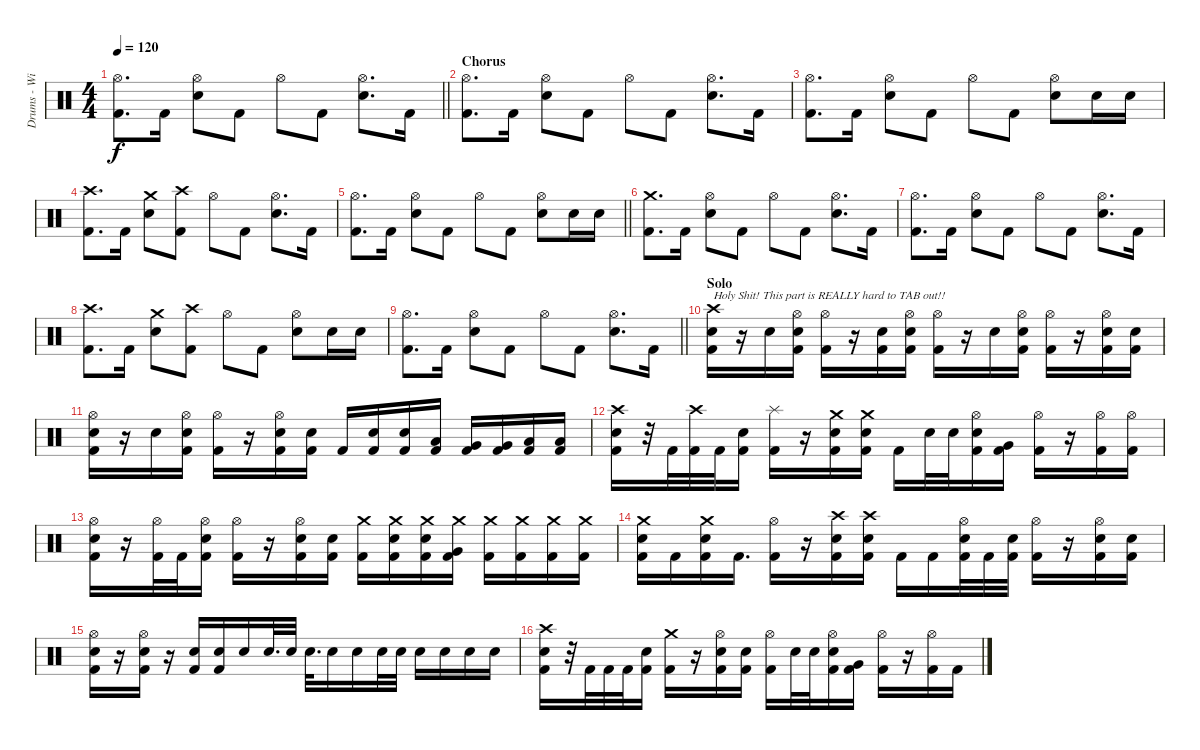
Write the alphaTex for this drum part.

\track ("Drums - Willi Wurm" "Drums - Wi") {instrument percussion}
\staff {score}
\articulation defaults
\ts (4 4)
\tempo 120
\clef neutral
\barLineRight lightlight
\ks c
("Hi-Hat (open)" "Kick (hit) 2").8{d dy f} "Kick (hit) 2".16 ("Hi-Hat (open)" "Snare (hit) 2").8 "Kick (hit) 2".8 "Hi-Hat (open)".8 "Kick (hit) 2".8 ("Hi-Hat (open)" "Snare (hit) 2").8{d} "Kick (hit) 2".16 |
\section ("" "Chorus")
("Hi-Hat (open)" "Kick (hit) 2").8{d} "Kick (hit) 2".16 ("Hi-Hat (open)" "Snare (hit) 2").8 "Kick (hit) 2".8 "Hi-Hat (open)".8 "Kick (hit) 2".8 ("Hi-Hat (open)" "Snare (hit) 2").8{d} "Kick (hit) 2".16 |
("Hi-Hat (open)" "Kick (hit) 2").8{d} "Kick (hit) 2".16 ("Hi-Hat (open)" "Snare (hit) 2").8 "Kick (hit) 2".8 "Hi-Hat (open)".8 "Kick (hit) 2".8 ("Hi-Hat (open)" "Snare (hit) 2").8 "Snare (hit) 2".16 "Snare (hit) 2".16 |
("Crash high (hit)" "Kick (hit) 2").8{d} "Kick (hit) 2".16 ("Crash medium (hit)" "Snare (hit) 2").8 ("Crash high (hit)" "Kick (hit) 2").8 "Hi-Hat (open)".8 "Kick (hit) 2".8 ("Hi-Hat (open)" "Snare (hit) 2").8{d} "Kick (hit) 2".16 |
\barLineRight lightlight
("Hi-Hat (open)" "Kick (hit) 2").8{d} "Kick (hit) 2".16 ("Hi-Hat (open)" "Snare (hit) 2").8 "Kick (hit) 2".8 "Hi-Hat (open)".8 "Kick (hit) 2".8 ("Hi-Hat (open)" "Snare (hit) 2").8 "Snare (hit) 2".16 "Snare (hit) 2".16 |
("Crash medium (hit)" "Kick (hit) 2").8{d} "Kick (hit) 2".16 ("Hi-Hat (open)" "Snare (hit) 2").8 "Kick (hit) 2".8 "Hi-Hat (open)".8 "Kick (hit) 2".8 ("Hi-Hat (open)" "Snare (hit) 2").8{d} "Kick (hit) 2".16 |
("Hi-Hat (open)" "Kick (hit) 2").8{d} "Kick (hit) 2".16 ("Hi-Hat (open)" "Snare (hit) 2").8 "Kick (hit) 2".8 "Hi-Hat (open)".8 "Kick (hit) 2".8 ("Hi-Hat (open)" "Snare (hit) 2").8{d} "Kick (hit) 2".16 |
("Crash high (hit)" "Kick (hit) 2").8{d} "Kick (hit) 2".16 ("Crash medium (hit)" "Snare (hit) 2").8 ("Crash high (hit)" "Kick (hit) 2").8 "Hi-Hat (open)".8 "Kick (hit) 2".8 ("Hi-Hat (open)" "Snare (hit) 2").8 "Snare (hit) 2".16 "Snare (hit) 2".16 |
\barLineRight lightlight
("Hi-Hat (open)" "Kick (hit) 2").8{d} "Kick (hit) 2".16 ("Hi-Hat (open)" "Snare (hit) 2").8 "Kick (hit) 2".8 "Hi-Hat (open)".8 "Kick (hit) 2".8 ("Hi-Hat (open)" "Snare (hit) 2").8{d} "Kick (hit) 2".16 |
\section ("" "Solo")
("Crash high (hit)" "Snare (hit) 2" "Kick (hit) 2").16{txt "Holy Shit! This part is REALLY hard to TAB out!!"} r.16 "Snare (hit) 2".16 ("Hi-Hat (open)" "Snare (hit) 2" "Kick (hit) 2").16 ("Hi-Hat (open)" "Kick (hit) 2").16 r.16 ("Snare (hit) 2" "Kick (hit) 2").16 ("Hi-Hat (open)" "Snare (hit) 2" "Kick (hit) 2").16 ("Hi-Hat (open)" "Kick (hit) 2").16 r.16 "Snare (hit) 2".16 ("Hi-Hat (open)" "Snare (hit) 2" "Kick (hit) 2").16 ("Hi-Hat (open)" "Kick (hit) 2").16 r.16 ("Hi-Hat (open)" "Snare (hit) 2" "Kick (hit) 2").16 ("Snare (hit) 2" "Kick (hit) 2").16 |
("Hi-Hat (open)" "Snare (hit) 2" "Kick (hit) 2").16 r.16 "Snare (hit) 2".16 ("Hi-Hat (open)" "Snare (hit) 2" "Kick (hit) 2").16 ("Hi-Hat (open)" "Kick (hit) 2").16 r.16 ("Hi-Hat (open)" "Snare (hit) 2" "Kick (hit) 2").16 ("Snare (hit) 2" "Kick (hit) 2").16 "Kick (hit) 2".16 ("Snare (hit) 2" "Kick (hit) 2").16 ("Snare (hit) 2" "Kick (hit) 2").16 ("Low Tom (hit)" "Kick (hit) 2").16 ("Very Low Tom (hit)" "Kick (hit) 2").16 ("Very Low Tom (hit)" "Kick (hit) 2").16 ("Low Floor Tom (hit)" "Kick (hit) 2").16 ("Low Floor Tom (hit)" "Kick (hit) 2").16 |
("Crash high (hit)" "Snare (hit) 2" "Kick (hit) 2").16 r.32 "Kick (hit) 2".32 ("Crash high (hit)" "Kick (hit) 2").32 "Kick (hit) 2".32 ("Snare (hit) 2" "Kick (hit) 2").16 ("Splash (hit)" "Kick (hit) 2").16 r.16 ("Crash medium (hit)" "Snare (hit) 2" "Kick (hit) 2").16 ("Crash medium (hit)" "Snare (hit) 2" "Kick (hit) 2").16 "Kick (hit) 2".16 "Snare (hit) 2".32 "Snare (hit) 2".32 ("Hi-Hat (open)" "Snare (hit) 2" "Kick (hit) 2").16 ("Very Low Tom (hit)" "Kick (hit) 2").16 ("Hi-Hat (open)" "Kick (hit) 2").16 r.16 ("Hi-Hat (open)" "Kick (hit) 2").16 ("Hi-Hat (open)" "Kick (hit) 2").16 |
("Hi-Hat (open)" "Snare (hit) 2" "Kick (hit) 2").16 r.16 ("Hi-Hat (open)" "Kick (hit) 2").32 "Kick (hit) 2".32 ("Hi-Hat (open)" "Snare (hit) 2" "Kick (hit) 2").16 ("Hi-Hat (open)" "Kick (hit) 2").16 r.16 ("Hi-Hat (open)" "Snare (hit) 2" "Kick (hit) 2").16 ("Snare (hit) 2" "Kick (hit) 2").16 ("Crash medium (hit)" "Kick (hit) 2").16 ("Crash medium (hit)" "Snare (hit) 2" "Kick (hit) 2").16 ("Crash medium (hit)" "Snare (hit) 2" "Kick (hit) 2").16 ("Crash medium (hit)" "Very Low Tom (hit)" "Kick (hit) 2").16 ("Crash medium (hit)" "Kick (hit) 2").16 ("Crash medium (hit)" "Kick (hit) 2").16 ("Crash medium (hit)" "Kick (hit) 2").16 ("Crash medium (hit)" "Kick (hit) 2").16 |
("Crash medium (hit)" "Snare (hit) 2" "Kick (hit) 2").16 "Kick (hit) 2".16 ("Crash medium (hit)" "Snare (hit) 2" "Kick (hit) 2").16 "Kick (hit) 2".16{d} ("Hi-Hat (open)" "Kick (hit) 2").16 r.16 ("Crash high (hit)" "Snare (hit) 2" "Kick (hit) 2").16 ("Crash high (hit)" "Snare (hit) 2" "Kick (hit) 2").16 "Kick (hit) 2".16 "Kick (hit) 2".16 ("Hi-Hat (open)" "Snare (hit) 2" "Kick (hit) 2").32 "Kick (hit) 2".32 ("Snare (hit) 2" "Kick (hit) 2").32 ("Hi-Hat (open)" "Kick (hit) 2").16 r.16 ("Hi-Hat (open)" "Snare (hit) 2" "Kick (hit) 2").16 ("Snare (hit) 2" "Kick (hit) 2").16 |
("Hi-Hat (open)" "Snare (hit) 2" "Kick (hit) 2").16 r.16 ("Hi-Hat (open)" "Snare (hit) 2" "Kick (hit) 2").16 r.16 ("Snare (hit) 2" "Kick (hit) 2").16 ("Snare (hit) 2" "Kick (hit) 2").16 "Snare (hit) 2".16 "Snare (hit) 2".32{d} "Snare (hit) 2".32 "Snare (hit) 2".32{d} "Snare (hit) 2".16 "Snare (hit) 2".16 "Snare (hit) 2".32 "Snare (hit) 2".32 "Snare (hit) 2".16 "Snare (hit) 2".16 "Snare (hit) 2".16 "Snare (hit) 2".16 |
("Crash high (hit)" "Snare (hit) 2" "Kick (hit) 2").16 r.32 "Kick (hit) 2".32 "Kick (hit) 2".32 "Kick (hit) 2".32 ("Snare (hit) 2" "Kick (hit) 2").16 ("Crash medium (hit)" "Kick (hit) 2").16 r.16 ("Hi-Hat (open)" "Snare (hit) 2" "Kick (hit) 2").16 ("Snare (hit) 2" "Kick (hit) 2").16 ("Hi-Hat (open)" "Kick (hit) 2").16 "Snare (hit) 2".32 "Snare (hit) 2".32 ("Hi-Hat (open)" "Snare (hit) 2" "Kick (hit) 2").16 ("Very Low Tom (hit)" "Kick (hit) 2").16 ("Hi-Hat (open)" "Kick (hit) 2").16 r.16 ("Hi-Hat (open)" "Kick (hit) 2").16 "Kick (hit) 2".16
